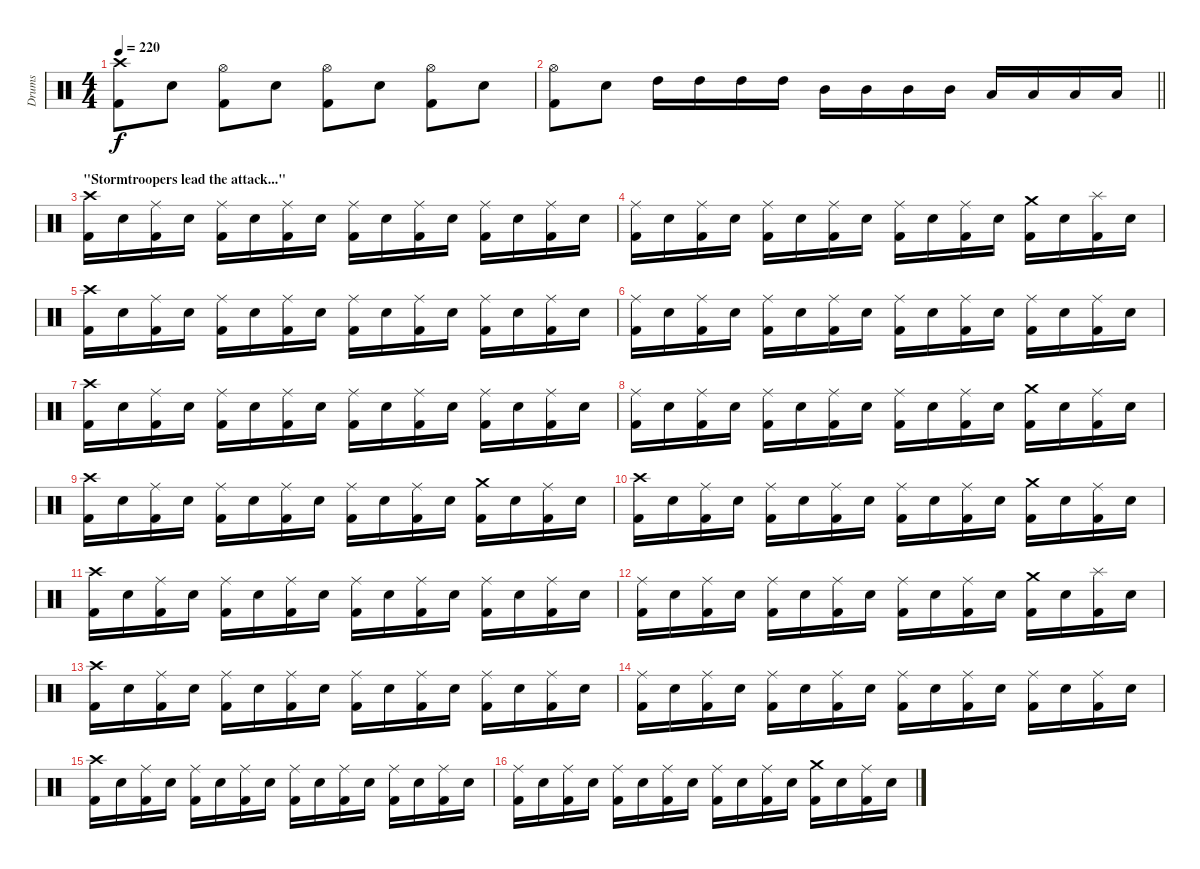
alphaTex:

\track ("Drums" "Drums") {instrument percussion}
\staff {score}
\articulation defaults
\ts (4 4)
\tempo 220
\clef neutral
\ks c
("Crash high (hit)" "Kick (hit) 2").8{dy f} "Electric Snare (hit)".8 ("Hi-Hat (open)" "Kick (hit) 2").8 "Electric Snare (hit)".8 ("Hi-Hat (open)" "Kick (hit) 2").8 "Electric Snare (hit)".8 ("Hi-Hat (open)" "Kick (hit) 2").8 "Electric Snare (hit)".8 |
\barLineRight lightlight
("Hi-Hat (open)" "Kick (hit) 2").8 "Electric Snare (hit)".8 "High Tom (hit)".16 "High Tom (hit)".16 "High Tom (hit)".16 "High Tom (hit)".16 "Mid Tom (hit)".16 "Mid Tom (hit)".16 "Mid Tom (hit)".16 "Mid Tom (hit)".16 "Low Tom (hit)".16 "Low Tom (hit)".16 "Low Tom (hit)".16 "Low Tom (hit)".16 |
\section ("" "\"Stormtroopers lead the attack...\"")
("Crash high (hit)" "Kick (hit) 2").16 "Electric Snare (hit)".16 ("Ride (middle)" "Kick (hit) 2").16 "Electric Snare (hit)".16 ("Ride (middle)" "Kick (hit) 2").16 "Electric Snare (hit)".16 ("Ride (middle)" "Kick (hit) 2").16 "Electric Snare (hit)".16 ("Ride (middle)" "Kick (hit) 2").16 "Electric Snare (hit)".16 ("Ride (middle)" "Kick (hit) 2").16 "Electric Snare (hit)".16 ("Ride (middle)" "Kick (hit) 2").16 "Electric Snare (hit)".16 ("Ride (middle)" "Kick (hit) 2").16 "Electric Snare (hit)".16 |
("Ride (middle)" "Kick (hit) 2").16 "Electric Snare (hit)".16 ("Ride (middle)" "Kick (hit) 2").16 "Electric Snare (hit)".16 ("Ride (middle)" "Kick (hit) 2").16 "Electric Snare (hit)".16 ("Ride (middle)" "Kick (hit) 2").16 "Electric Snare (hit)".16 ("Ride (middle)" "Kick (hit) 2").16 "Electric Snare (hit)".16 ("Ride (middle)" "Kick (hit) 2").16 "Electric Snare (hit)".16 ("Crash medium (hit)" "Kick (hit) 2").16 "Electric Snare (hit)".16 ("Splash (hit)" "Kick (hit) 2").16 "Electric Snare (hit)".16 |
("Crash high (hit)" "Kick (hit) 2").16 "Electric Snare (hit)".16 ("Ride (middle)" "Kick (hit) 2").16 "Electric Snare (hit)".16 ("Ride (middle)" "Kick (hit) 2").16 "Electric Snare (hit)".16 ("Ride (middle)" "Kick (hit) 2").16 "Electric Snare (hit)".16 ("Ride (middle)" "Kick (hit) 2").16 "Electric Snare (hit)".16 ("Ride (middle)" "Kick (hit) 2").16 "Electric Snare (hit)".16 ("Ride (middle)" "Kick (hit) 2").16 "Electric Snare (hit)".16 ("Ride (middle)" "Kick (hit) 2").16 "Electric Snare (hit)".16 |
("Ride (middle)" "Kick (hit) 2").16 "Electric Snare (hit)".16 ("Ride (middle)" "Kick (hit) 2").16 "Electric Snare (hit)".16 ("Ride (middle)" "Kick (hit) 2").16 "Electric Snare (hit)".16 ("Ride (middle)" "Kick (hit) 2").16 "Electric Snare (hit)".16 ("Ride (middle)" "Kick (hit) 2").16 "Electric Snare (hit)".16 ("Ride (middle)" "Kick (hit) 2").16 "Electric Snare (hit)".16 ("Ride (middle)" "Kick (hit) 2").16 "Electric Snare (hit)".16 ("Ride (middle)" "Kick (hit) 2").16 "Electric Snare (hit)".16 |
("Crash high (hit)" "Kick (hit) 2").16 "Electric Snare (hit)".16 ("Ride (middle)" "Kick (hit) 2").16 "Electric Snare (hit)".16 ("Ride (middle)" "Kick (hit) 2").16 "Electric Snare (hit)".16 ("Ride (middle)" "Kick (hit) 2").16 "Electric Snare (hit)".16 ("Ride (middle)" "Kick (hit) 2").16 "Electric Snare (hit)".16 ("Ride (middle)" "Kick (hit) 2").16 "Electric Snare (hit)".16 ("Ride (middle)" "Kick (hit) 2").16 "Electric Snare (hit)".16 ("Ride (middle)" "Kick (hit) 2").16 "Electric Snare (hit)".16 |
("Ride (middle)" "Kick (hit) 2").16 "Electric Snare (hit)".16 ("Ride (middle)" "Kick (hit) 2").16 "Electric Snare (hit)".16 ("Ride (middle)" "Kick (hit) 2").16 "Electric Snare (hit)".16 ("Ride (middle)" "Kick (hit) 2").16 "Electric Snare (hit)".16 ("Ride (middle)" "Kick (hit) 2").16 "Electric Snare (hit)".16 ("Ride (middle)" "Kick (hit) 2").16 "Electric Snare (hit)".16 ("Crash medium (hit)" "Kick (hit) 2").16 "Electric Snare (hit)".16 ("Ride (middle)" "Kick (hit) 2").16 "Electric Snare (hit)".16 |
("Crash high (hit)" "Kick (hit) 2").16 "Electric Snare (hit)".16 ("Ride (middle)" "Kick (hit) 2").16 "Electric Snare (hit)".16 ("Ride (middle)" "Kick (hit) 2").16 "Electric Snare (hit)".16 ("Ride (middle)" "Kick (hit) 2").16 "Electric Snare (hit)".16 ("Ride (middle)" "Kick (hit) 2").16 "Electric Snare (hit)".16 ("Ride (middle)" "Kick (hit) 2").16 "Electric Snare (hit)".16 ("Crash medium (hit)" "Kick (hit) 2").16 "Electric Snare (hit)".16 ("Ride (middle)" "Kick (hit) 2").16 "Electric Snare (hit)".16 |
("Crash high (hit)" "Kick (hit) 2").16 "Electric Snare (hit)".16 ("Ride (middle)" "Kick (hit) 2").16 "Electric Snare (hit)".16 ("Ride (middle)" "Kick (hit) 2").16 "Electric Snare (hit)".16 ("Ride (middle)" "Kick (hit) 2").16 "Electric Snare (hit)".16 ("Ride (middle)" "Kick (hit) 2").16 "Electric Snare (hit)".16 ("Ride (middle)" "Kick (hit) 2").16 "Electric Snare (hit)".16 ("Crash medium (hit)" "Kick (hit) 2").16 "Electric Snare (hit)".16 ("Ride (middle)" "Kick (hit) 2").16 "Electric Snare (hit)".16 |
("Crash high (hit)" "Kick (hit) 2").16 "Electric Snare (hit)".16 ("Ride (middle)" "Kick (hit) 2").16 "Electric Snare (hit)".16 ("Ride (middle)" "Kick (hit) 2").16 "Electric Snare (hit)".16 ("Ride (middle)" "Kick (hit) 2").16 "Electric Snare (hit)".16 ("Ride (middle)" "Kick (hit) 2").16 "Electric Snare (hit)".16 ("Ride (middle)" "Kick (hit) 2").16 "Electric Snare (hit)".16 ("Ride (middle)" "Kick (hit) 2").16 "Electric Snare (hit)".16 ("Ride (middle)" "Kick (hit) 2").16 "Electric Snare (hit)".16 |
("Ride (middle)" "Kick (hit) 2").16 "Electric Snare (hit)".16 ("Ride (middle)" "Kick (hit) 2").16 "Electric Snare (hit)".16 ("Ride (middle)" "Kick (hit) 2").16 "Electric Snare (hit)".16 ("Ride (middle)" "Kick (hit) 2").16 "Electric Snare (hit)".16 ("Ride (middle)" "Kick (hit) 2").16 "Electric Snare (hit)".16 ("Ride (middle)" "Kick (hit) 2").16 "Electric Snare (hit)".16 ("Crash medium (hit)" "Kick (hit) 2").16 "Electric Snare (hit)".16 ("Splash (hit)" "Kick (hit) 2").16 "Electric Snare (hit)".16 |
("Crash high (hit)" "Kick (hit) 2").16 "Electric Snare (hit)".16 ("Ride (middle)" "Kick (hit) 2").16 "Electric Snare (hit)".16 ("Ride (middle)" "Kick (hit) 2").16 "Electric Snare (hit)".16 ("Ride (middle)" "Kick (hit) 2").16 "Electric Snare (hit)".16 ("Ride (middle)" "Kick (hit) 2").16 "Electric Snare (hit)".16 ("Ride (middle)" "Kick (hit) 2").16 "Electric Snare (hit)".16 ("Ride (middle)" "Kick (hit) 2").16 "Electric Snare (hit)".16 ("Ride (middle)" "Kick (hit) 2").16 "Electric Snare (hit)".16 |
("Ride (middle)" "Kick (hit) 2").16 "Electric Snare (hit)".16 ("Ride (middle)" "Kick (hit) 2").16 "Electric Snare (hit)".16 ("Ride (middle)" "Kick (hit) 2").16 "Electric Snare (hit)".16 ("Ride (middle)" "Kick (hit) 2").16 "Electric Snare (hit)".16 ("Ride (middle)" "Kick (hit) 2").16 "Electric Snare (hit)".16 ("Ride (middle)" "Kick (hit) 2").16 "Electric Snare (hit)".16 ("Ride (middle)" "Kick (hit) 2").16 "Electric Snare (hit)".16 ("Ride (middle)" "Kick (hit) 2").16 "Electric Snare (hit)".16 |
("Crash high (hit)" "Kick (hit) 2").16 "Electric Snare (hit)".16 ("Ride (middle)" "Kick (hit) 2").16 "Electric Snare (hit)".16 ("Ride (middle)" "Kick (hit) 2").16 "Electric Snare (hit)".16 ("Ride (middle)" "Kick (hit) 2").16 "Electric Snare (hit)".16 ("Ride (middle)" "Kick (hit) 2").16 "Electric Snare (hit)".16 ("Ride (middle)" "Kick (hit) 2").16 "Electric Snare (hit)".16 ("Ride (middle)" "Kick (hit) 2").16 "Electric Snare (hit)".16 ("Ride (middle)" "Kick (hit) 2").16 "Electric Snare (hit)".16 |
("Ride (middle)" "Kick (hit) 2").16 "Electric Snare (hit)".16 ("Ride (middle)" "Kick (hit) 2").16 "Electric Snare (hit)".16 ("Ride (middle)" "Kick (hit) 2").16 "Electric Snare (hit)".16 ("Ride (middle)" "Kick (hit) 2").16 "Electric Snare (hit)".16 ("Ride (middle)" "Kick (hit) 2").16 "Electric Snare (hit)".16 ("Ride (middle)" "Kick (hit) 2").16 "Electric Snare (hit)".16 ("Crash medium (hit)" "Kick (hit) 2").16 "Electric Snare (hit)".16 ("Ride (middle)" "Kick (hit) 2").16 "Electric Snare (hit)".16
